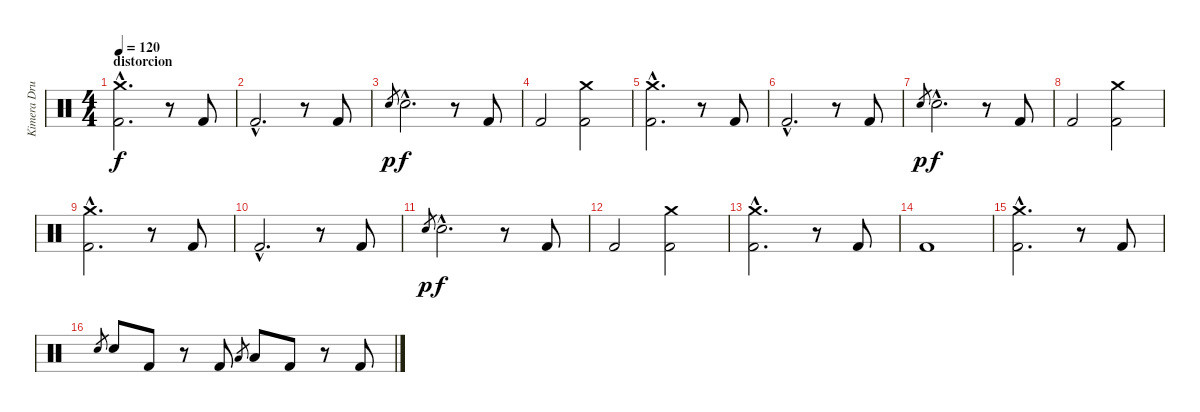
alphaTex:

\track ("Kimera Drummer" "Kimera Dru") {instrument percussion}
\staff {score}
\articulation defaults
\ts (4 4)
\section ("" "distorcion")
\tempo 120
\clef neutral
\ks c
("Crash medium (hit)"{hac} "Kick (hit) 2"{hac}).2{d dy f} r.8 "Kick (hit) 2".8 |
"Kick (hit) 2"{hac}.2{d} r.8 "Kick (hit) 2".8 |
"Electric Snare (hit)".8{gr dy p} "Electric Snare (hit)"{hac}.2{d dy f} r.8 "Kick (hit) 2".8 |
"Kick (hit) 2".2 ("Crash medium (hit)" "Kick (hit) 2").2 |
("Crash medium (hit)"{hac} "Kick (hit) 2"{hac}).2{d} r.8 "Kick (hit) 2".8 |
"Kick (hit) 2"{hac}.2{d} r.8 "Kick (hit) 2".8 |
"Electric Snare (hit)".8{gr dy p} "Electric Snare (hit)"{hac}.2{d dy f} r.8 "Kick (hit) 2".8 |
"Kick (hit) 2".2 ("Crash medium (hit)" "Kick (hit) 2").2 |
("Crash medium (hit)"{hac} "Kick (hit) 2"{hac}).2{d} r.8 "Kick (hit) 2".8 |
"Kick (hit) 2"{hac}.2{d} r.8 "Kick (hit) 2".8 |
"Electric Snare (hit)".8{gr dy p} "Electric Snare (hit)"{hac}.2{d dy f} r.8 "Kick (hit) 2".8 |
"Kick (hit) 2".2 ("Crash medium (hit)" "Kick (hit) 2").2 |
("Crash medium (hit)"{hac} "Kick (hit) 2"{hac}).2{d} r.8 "Kick (hit) 2".8 |
"Kick (hit) 2".1 |
("Crash medium (hit)"{hac} "Kick (hit) 2"{hac}).2{d} r.8 "Kick (hit) 2".8 |
"Electric Snare (hit)".8{gr} "Electric Snare (hit)".8 "Kick (hit) 2".8 r.8 "Kick (hit) 2".8 "Low Tom (hit)".8{gr} "Low Tom (hit)".8 "Kick (hit) 2".8 r.8 "Kick (hit) 2".8
